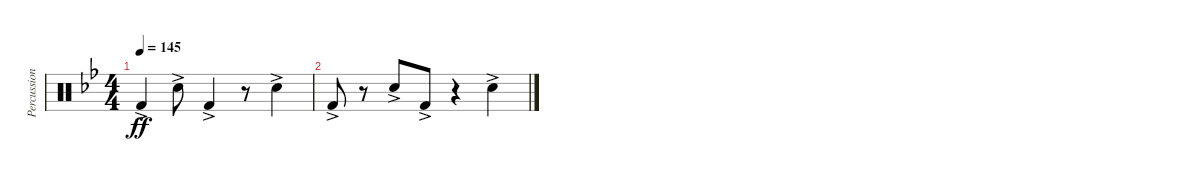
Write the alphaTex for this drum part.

\track ("Percussion" "Percussion") {instrument percussion}
\staff {score}
\articulation defaults
\ts (4 4)
\tempo 145
\clef neutral
\ks gminor "Kick (hit) 2"{ac}.4{dy ff} "Hand Clap (hit)"{ac}.8 "Kick (hit) 2"{ac}.4
r.8 "Hand Clap (hit)"{ac}.4 |
"Kick (hit) 2"{ac}.8 r.8 "Hand Clap (hit)"{ac}.8 "Kick (hit) 2"{ac}.8 r.4 "Hand Clap (hit)"{ac}.4
